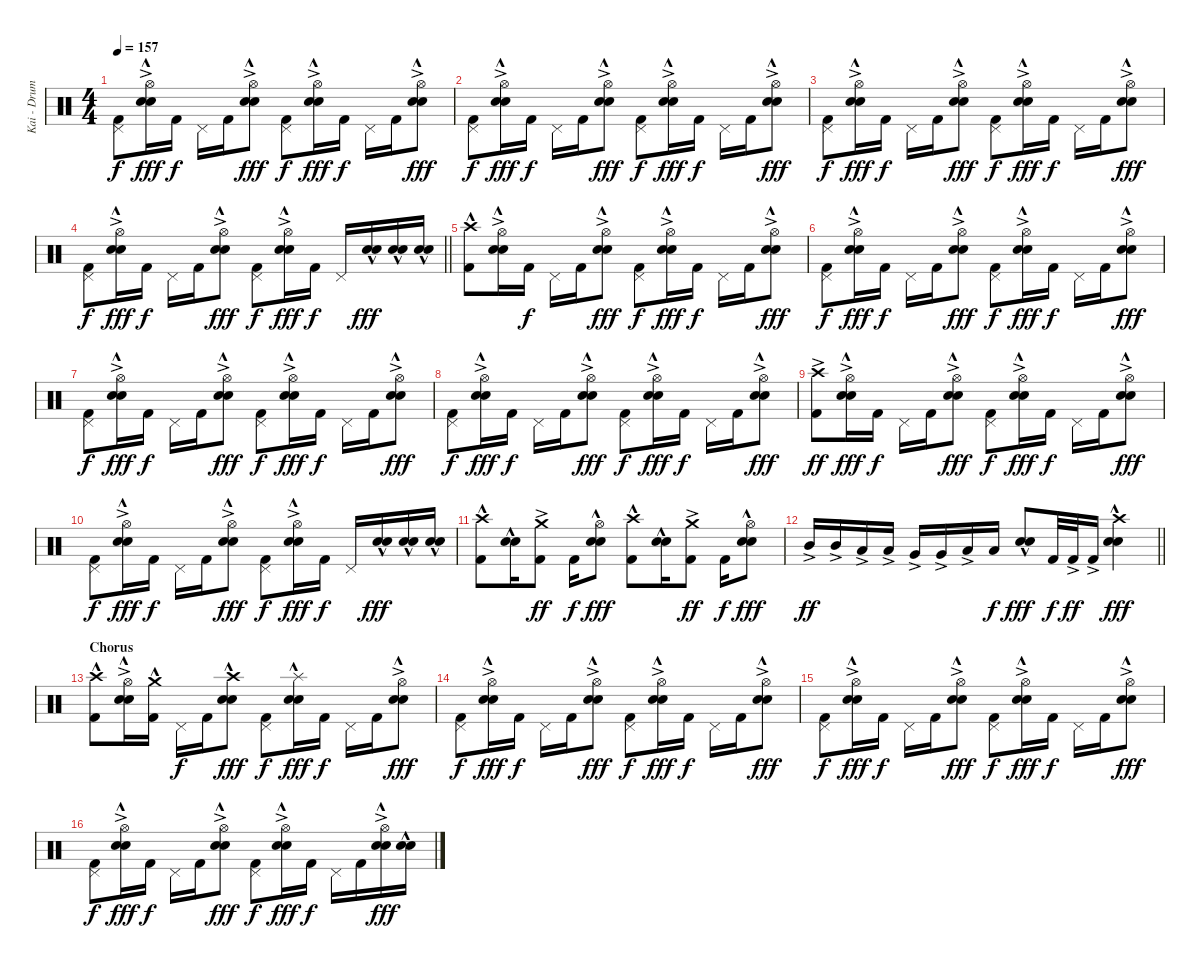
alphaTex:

\track ("Kai - Drums" "Kai - Drum") {instrument percussion}
\staff {score}
\articulation defaults
\ts (4 4)
\tempo 157
\clef neutral
\ks c
("Pedal Hi-Hat (hit)" "Kick (hit) 2").8{dy f} ("Hi-Hat (open)"{ac} "Electric Snare (hit)"{hac} "Snare (hit) 2").16{dy fff} "Kick (hit) 2".16{dy f} "Pedal Hi-Hat (hit)".16 "Kick (hit) 2".16 ("Hi-Hat (open)"{ac} "Electric Snare (hit)"{hac} "Snare (hit) 2").8{dy fff} ("Pedal Hi-Hat (hit)" "Kick (hit) 2").8{dy f} ("Hi-Hat (open)"{ac} "Electric Snare (hit)"{hac} "Snare (hit) 2").16{dy fff} "Kick (hit) 2".16{dy f} "Pedal Hi-Hat (hit)".16 "Kick (hit) 2".16 ("Hi-Hat (open)"{ac} "Electric Snare (hit)"{hac} "Snare (hit) 2").8{dy fff} |
("Pedal Hi-Hat (hit)" "Kick (hit) 2").8{dy f} ("Hi-Hat (open)"{ac} "Electric Snare (hit)"{hac} "Snare (hit) 2").16{dy fff} "Kick (hit) 2".16{dy f} "Pedal Hi-Hat (hit)".16 "Kick (hit) 2".16 ("Hi-Hat (open)"{ac} "Electric Snare (hit)"{hac} "Snare (hit) 2").8{dy fff} ("Pedal Hi-Hat (hit)" "Kick (hit) 2").8{dy f} ("Hi-Hat (open)"{ac} "Electric Snare (hit)"{hac} "Snare (hit) 2").16{dy fff} "Kick (hit) 2".16{dy f} "Pedal Hi-Hat (hit)".16 "Kick (hit) 2".16 ("Hi-Hat (open)"{ac} "Electric Snare (hit)"{hac} "Snare (hit) 2").8{dy fff} |
("Pedal Hi-Hat (hit)" "Kick (hit) 2").8{dy f} ("Hi-Hat (open)"{ac} "Electric Snare (hit)"{hac} "Snare (hit) 2").16{dy fff} "Kick (hit) 2".16{dy f} "Pedal Hi-Hat (hit)".16 "Kick (hit) 2".16 ("Hi-Hat (open)"{ac} "Electric Snare (hit)"{hac} "Snare (hit) 2").8{dy fff} ("Pedal Hi-Hat (hit)" "Kick (hit) 2").8{dy f} ("Hi-Hat (open)"{ac} "Electric Snare (hit)"{hac} "Snare (hit) 2").16{dy fff} "Kick (hit) 2".16{dy f} "Pedal Hi-Hat (hit)".16 "Kick (hit) 2".16 ("Hi-Hat (open)"{ac} "Electric Snare (hit)"{hac} "Snare (hit) 2").8{dy fff} |
\barLineRight lightlight
("Pedal Hi-Hat (hit)" "Kick (hit) 2").8{dy f} ("Hi-Hat (open)"{ac} "Electric Snare (hit)"{hac} "Snare (hit) 2").16{dy fff} "Kick (hit) 2".16{dy f} "Pedal Hi-Hat (hit)".16 "Kick (hit) 2".16 ("Hi-Hat (open)"{ac} "Electric Snare (hit)"{hac} "Snare (hit) 2").8{dy fff} ("Pedal Hi-Hat (hit)" "Kick (hit) 2").8{dy f} ("Hi-Hat (open)"{ac} "Electric Snare (hit)"{hac} "Snare (hit) 2").16{dy fff} "Kick (hit) 2".16{dy f} "Pedal Hi-Hat (hit)".16 ("Electric Snare (hit)"{hac} "Snare (hit) 2").16{dy fff} ("Electric Snare (hit)"{hac} "Snare (hit) 2").16 ("Electric Snare (hit)"{hac} "Snare (hit) 2").16 |
\section ("" "")
("Crash high (hit)"{hac} "Kick (hit) 2").8 ("Hi-Hat (open)"{ac} "Electric Snare (hit)"{hac} "Snare (hit) 2").16 "Kick (hit) 2".16{dy f} "Pedal Hi-Hat (hit)".16 "Kick (hit) 2".16 ("Hi-Hat (open)"{ac} "Electric Snare (hit)"{hac} "Snare (hit) 2").8{dy fff} ("Pedal Hi-Hat (hit)" "Kick (hit) 2").8{dy f} ("Hi-Hat (open)"{ac} "Electric Snare (hit)"{hac} "Snare (hit) 2").16{dy fff} "Kick (hit) 2".16{dy f} "Pedal Hi-Hat (hit)".16 "Kick (hit) 2".16 ("Hi-Hat (open)"{ac} "Electric Snare (hit)"{hac} "Snare (hit) 2").8{dy fff} |
("Pedal Hi-Hat (hit)" "Kick (hit) 2").8{dy f} ("Hi-Hat (open)"{ac} "Electric Snare (hit)"{hac} "Snare (hit) 2").16{dy fff} "Kick (hit) 2".16{dy f} "Pedal Hi-Hat (hit)".16 "Kick (hit) 2".16 ("Hi-Hat (open)"{ac} "Electric Snare (hit)"{hac} "Snare (hit) 2").8{dy fff} ("Pedal Hi-Hat (hit)" "Kick (hit) 2").8{dy f} ("Hi-Hat (open)"{ac} "Electric Snare (hit)"{hac} "Snare (hit) 2").16{dy fff} "Kick (hit) 2".16{dy f} "Pedal Hi-Hat (hit)".16 "Kick (hit) 2".16 ("Hi-Hat (open)"{ac} "Electric Snare (hit)"{hac} "Snare (hit) 2").8{dy fff} |
("Pedal Hi-Hat (hit)" "Kick (hit) 2").8{dy f} ("Hi-Hat (open)"{ac} "Electric Snare (hit)"{hac} "Snare (hit) 2").16{dy fff} "Kick (hit) 2".16{dy f} "Pedal Hi-Hat (hit)".16 "Kick (hit) 2".16 ("Hi-Hat (open)"{ac} "Electric Snare (hit)"{hac} "Snare (hit) 2").8{dy fff} ("Pedal Hi-Hat (hit)" "Kick (hit) 2").8{dy f} ("Hi-Hat (open)"{ac} "Electric Snare (hit)"{hac} "Snare (hit) 2").16{dy fff} "Kick (hit) 2".16{dy f} "Pedal Hi-Hat (hit)".16 "Kick (hit) 2".16 ("Hi-Hat (open)"{ac} "Electric Snare (hit)"{hac} "Snare (hit) 2").8{dy fff} |
("Pedal Hi-Hat (hit)" "Kick (hit) 2").8{dy f} ("Hi-Hat (open)"{ac} "Electric Snare (hit)"{hac} "Snare (hit) 2").16{dy fff} "Kick (hit) 2".16{dy f} "Pedal Hi-Hat (hit)".16 "Kick (hit) 2".16 ("Hi-Hat (open)"{ac} "Electric Snare (hit)"{hac} "Snare (hit) 2").8{dy fff} ("Pedal Hi-Hat (hit)" "Kick (hit) 2").8{dy f} ("Hi-Hat (open)"{ac} "Electric Snare (hit)"{hac} "Snare (hit) 2").16{dy fff} "Kick (hit) 2".16{dy f} "Pedal Hi-Hat (hit)".16 "Kick (hit) 2".16 ("Hi-Hat (open)"{ac} "Electric Snare (hit)"{hac} "Snare (hit) 2").8{dy fff} |
("Crash high (hit)"{ac} "Kick (hit) 2").8{dy ff} ("Hi-Hat (open)"{ac} "Electric Snare (hit)"{hac} "Snare (hit) 2").16{dy fff} "Kick (hit) 2".16{dy f} "Pedal Hi-Hat (hit)".16 "Kick (hit) 2".16 ("Hi-Hat (open)"{ac} "Electric Snare (hit)"{hac} "Snare (hit) 2").8{dy fff} ("Pedal Hi-Hat (hit)" "Kick (hit) 2").8{dy f} ("Hi-Hat (open)"{ac} "Electric Snare (hit)"{hac} "Snare (hit) 2").16{dy fff} "Kick (hit) 2".16{dy f} "Pedal Hi-Hat (hit)".16 "Kick (hit) 2".16 ("Hi-Hat (open)"{ac} "Electric Snare (hit)"{hac} "Snare (hit) 2").8{dy fff} |
("Pedal Hi-Hat (hit)" "Kick (hit) 2").8{dy f} ("Hi-Hat (open)"{ac} "Electric Snare (hit)"{hac} "Snare (hit) 2").16{dy fff} "Kick (hit) 2".16{dy f} "Pedal Hi-Hat (hit)".16 "Kick (hit) 2".16 ("Hi-Hat (open)"{ac} "Electric Snare (hit)"{hac} "Snare (hit) 2").8{dy fff} ("Pedal Hi-Hat (hit)" "Kick (hit) 2").8{dy f} ("Hi-Hat (open)"{ac} "Electric Snare (hit)"{hac} "Snare (hit) 2").16{dy fff} "Kick (hit) 2".16{dy f} "Pedal Hi-Hat (hit)".16 ("Electric Snare (hit)"{hac} "Snare (hit) 2").16{dy fff} ("Electric Snare (hit)"{hac} "Snare (hit) 2").16 ("Electric Snare (hit)"{hac} "Snare (hit) 2").16 |
("Crash high (hit)"{hac} "Kick (hit) 2").8 ("Electric Snare (hit)"{hac} "Snare (hit) 2").16 ("Crash medium (hit)"{ac} "Kick (hit) 2").8{dy ff} "Kick (hit) 2".16{dy f} ("Hi-Hat (open)" "Electric Snare (hit)"{hac} "Snare (hit) 2").8{dy fff} ("Crash high (hit)"{hac} "Kick (hit) 2").8 ("Electric Snare (hit)"{hac} "Snare (hit) 2").16 ("Crash medium (hit)"{ac} "Kick (hit) 2").8{dy ff} "Kick (hit) 2".16{dy f} ("Hi-Hat (open)" "Electric Snare (hit)"{hac} "Snare (hit) 2").8{dy fff} |
\barLineRight lightlight "Mid Tom (hit)"{ac}.16{dy ff} "Mid Tom (hit)"{ac}.16 "Low Tom (hit)"{ac}.16 "Low Tom (hit)"{ac}.16 "Very Low Tom (hit)"{ac}.16 "Very Low Tom (hit)"{ac}.16 "Low Floor Tom (hit)"{ac}.16 "Low Floor Tom (hit)".16{dy f}
("Electric Snare (hit)"{hac} "Snare (hit) 2").8{dy fff} "Kick (hit) 2".32{dy f} "Kick (hit) 2"{ac}.32{dy ff} "Kick (hit) 2"{ac}.16 ("Crash high (hit)" "Electric Snare (hit)"{hac} "Snare (hit) 2").4{dy fff} |
\section ("" "Chorus")
("Crash high (hit)"{hac} "Kick (hit) 2").8 ("Hi-Hat (open)"{ac} "Electric Snare (hit)"{hac} "Snare (hit) 2").16 ("Crash medium (hit)"{hac} "Kick (hit) 2").16 "Pedal Hi-Hat (hit)".16{dy f} "Kick (hit) 2".16 ("Crash high (hit)"{hac} "Electric Snare (hit)"{hac} "Snare (hit) 2").8{dy fff} ("Pedal Hi-Hat (hit)" "Kick (hit) 2").8{dy f} ("Splash (hit)"{hac} "Electric Snare (hit)"{hac} "Snare (hit) 2").16{dy fff} "Kick (hit) 2".16{dy f} "Pedal Hi-Hat (hit)".16 "Kick (hit) 2".16 ("Hi-Hat (open)"{ac} "Electric Snare (hit)"{hac} "Snare (hit) 2").8{dy fff} |
("Pedal Hi-Hat (hit)" "Kick (hit) 2").8{dy f} ("Hi-Hat (open)"{ac} "Electric Snare (hit)"{hac} "Snare (hit) 2").16{dy fff} "Kick (hit) 2".16{dy f} "Pedal Hi-Hat (hit)".16 "Kick (hit) 2".16 ("Hi-Hat (open)"{ac} "Electric Snare (hit)"{hac} "Snare (hit) 2").8{dy fff} ("Pedal Hi-Hat (hit)" "Kick (hit) 2").8{dy f} ("Hi-Hat (open)"{ac} "Electric Snare (hit)"{hac} "Snare (hit) 2").16{dy fff} "Kick (hit) 2".16{dy f} "Pedal Hi-Hat (hit)".16 "Kick (hit) 2".16 ("Hi-Hat (open)"{ac} "Electric Snare (hit)"{hac} "Snare (hit) 2").8{dy fff} |
("Pedal Hi-Hat (hit)" "Kick (hit) 2").8{dy f} ("Hi-Hat (open)"{ac} "Electric Snare (hit)"{hac} "Snare (hit) 2").16{dy fff} "Kick (hit) 2".16{dy f} "Pedal Hi-Hat (hit)".16 "Kick (hit) 2".16 ("Hi-Hat (open)"{ac} "Electric Snare (hit)"{hac} "Snare (hit) 2").8{dy fff} ("Pedal Hi-Hat (hit)" "Kick (hit) 2").8{dy f} ("Hi-Hat (open)"{ac} "Electric Snare (hit)"{hac} "Snare (hit) 2").16{dy fff} "Kick (hit) 2".16{dy f} "Pedal Hi-Hat (hit)".16 "Kick (hit) 2".16 ("Hi-Hat (open)"{ac} "Electric Snare (hit)"{hac} "Snare (hit) 2").8{dy fff} |
("Pedal Hi-Hat (hit)" "Kick (hit) 2").8{dy f} ("Hi-Hat (open)"{ac} "Electric Snare (hit)"{hac} "Snare (hit) 2").16{dy fff} "Kick (hit) 2".16{dy f} "Pedal Hi-Hat (hit)".16 "Kick (hit) 2".16 ("Hi-Hat (open)"{ac} "Electric Snare (hit)"{hac} "Snare (hit) 2").8{dy fff} ("Pedal Hi-Hat (hit)" "Kick (hit) 2").8{dy f} ("Hi-Hat (open)"{ac} "Electric Snare (hit)"{hac} "Snare (hit) 2").16{dy fff} "Kick (hit) 2".16{dy f} "Pedal Hi-Hat (hit)".16 "Kick (hit) 2".16 ("Hi-Hat (open)"{ac} "Electric Snare (hit)"{hac} "Snare (hit) 2").16{dy fff} ("Electric Snare (hit)"{hac} "Snare (hit) 2").16
